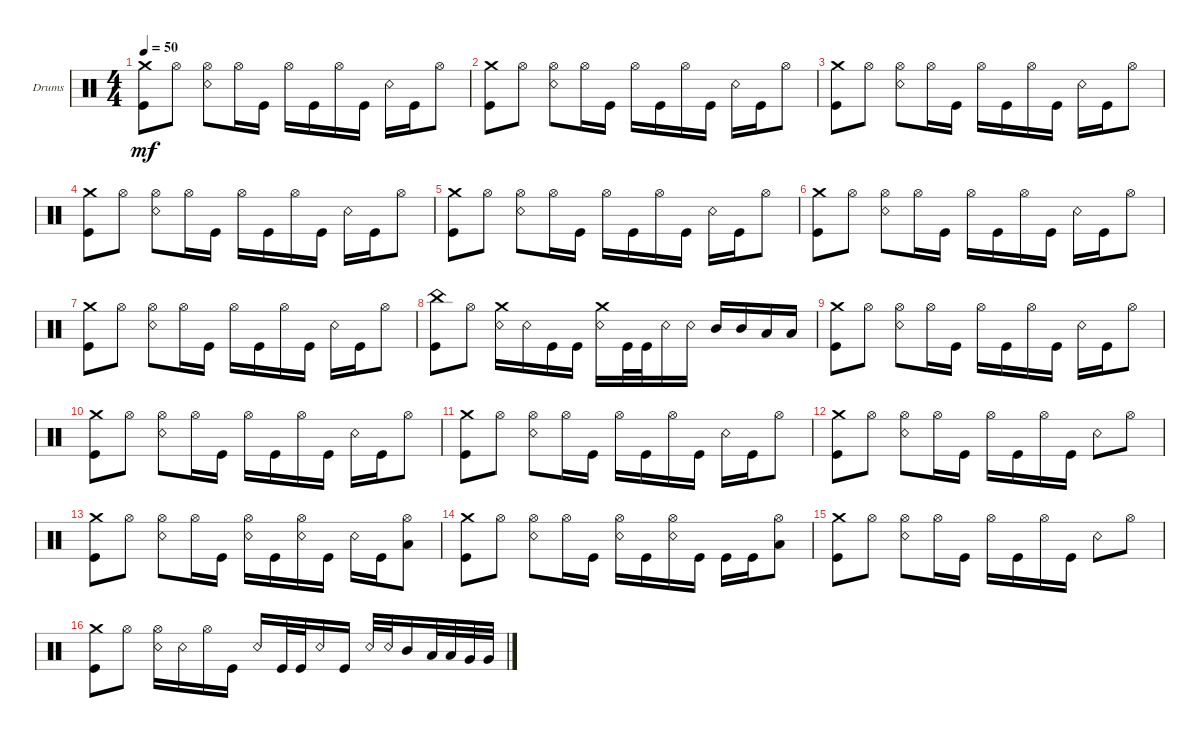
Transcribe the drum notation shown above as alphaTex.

\defaultSystemsLayout 4
\bracketExtendMode groupsimilarinstruments
\firstSystemTrackNameOrientation horizontal
\otherSystemsTrackNameOrientation horizontal
\track ("Илья" "Drums") {instrument percussion}
\staff {score}
\articulation defaults
\ts (4 4)
\tempo 50
\clef neutral
\ks c
("Crash medium (hit)" "Kick (hit)").8{dy mf} "Hi-Hat (open)".8 ("Snare (rim shot)" "Hi-Hat (open)").8 "Hi-Hat (open)".16 "Kick (hit)".16 "Hi-Hat (open)".16 "Kick (hit)".16 "Hi-Hat (open)".16 "Kick (hit)".16 "Snare (rim shot)".16 "Kick (hit)".16 "Hi-Hat (open)".8 |
("Crash medium (hit)" "Kick (hit)").8 "Hi-Hat (open)".8 ("Snare (rim shot)" "Hi-Hat (open)").8 "Hi-Hat (open)".16 "Kick (hit)".16 "Hi-Hat (open)".16 "Kick (hit)".16 "Hi-Hat (open)".16 "Kick (hit)".16 "Snare (rim shot)".16 "Kick (hit)".16 "Hi-Hat (open)".8 |
("Crash medium (hit)" "Kick (hit)").8 "Hi-Hat (open)".8 ("Snare (rim shot)" "Hi-Hat (open)").8 "Hi-Hat (open)".16 "Kick (hit)".16 "Hi-Hat (open)".16 "Kick (hit)".16 "Hi-Hat (open)".16 "Kick (hit)".16 "Snare (rim shot)".16 "Kick (hit)".16 "Hi-Hat (open)".8 |
("Crash medium (hit)" "Kick (hit)").8 "Hi-Hat (open)".8 ("Snare (rim shot)" "Hi-Hat (open)").8 "Hi-Hat (open)".16 "Kick (hit)".16 "Hi-Hat (open)".16 "Kick (hit)".16 "Hi-Hat (open)".16 "Kick (hit)".16 "Snare (rim shot)".16 "Kick (hit)".16 "Hi-Hat (open)".8 |
("Crash medium (hit)" "Kick (hit)").8 "Hi-Hat (open)".8 ("Snare (rim shot)" "Hi-Hat (open)").8 "Hi-Hat (open)".16 "Kick (hit)".16 "Hi-Hat (open)".16 "Kick (hit)".16 "Hi-Hat (open)".16 "Kick (hit)".16 "Snare (rim shot)".16 "Kick (hit)".16 "Hi-Hat (open)".8 |
("Crash medium (hit)" "Kick (hit)").8 "Hi-Hat (open)".8 ("Snare (rim shot)" "Hi-Hat (open)").8 "Hi-Hat (open)".16 "Kick (hit)".16 "Hi-Hat (open)".16 "Kick (hit)".16 "Hi-Hat (open)".16 "Kick (hit)".16 "Snare (rim shot)".16 "Kick (hit)".16 "Hi-Hat (open)".8 |
("Crash medium (hit)" "Kick (hit)").8 "Hi-Hat (open)".8 ("Snare (rim shot)" "Hi-Hat (open)").8 "Hi-Hat (open)".16 "Kick (hit)".16 "Hi-Hat (open)".16 "Kick (hit)".16 "Hi-Hat (open)".16 "Kick (hit)".16 "Snare (rim shot)".16 "Kick (hit)".16 "Hi-Hat (open)".8 |
("Kick (hit)" "China (hit)").8 "Hi-Hat (open)".8 ("Snare (rim shot)" "Crash medium (hit)").16 "Snare (rim shot)".16 "Kick (hit)".16 "Kick (hit)".16 ("Snare (rim shot)" "Crash medium (hit)").16 "Kick (hit)".32 "Kick (hit)".32 "Snare (rim shot)".16 "Snare (rim shot)".16 "Mid Tom (hit)".16 "Mid Tom (hit)".16 "Low Tom (hit)".16 "Low Tom (hit)".16 |
("Crash medium (hit)" "Kick (hit)").8 "Hi-Hat (open)".8 ("Snare (rim shot)" "Hi-Hat (open)").8 "Hi-Hat (open)".16 "Kick (hit)".16 "Hi-Hat (open)".16 "Kick (hit)".16 "Hi-Hat (open)".16 "Kick (hit)".16 "Snare (rim shot)".16 "Kick (hit)".16 "Hi-Hat (open)".8 |
("Crash medium (hit)" "Kick (hit)").8 "Hi-Hat (open)".8 ("Snare (rim shot)" "Hi-Hat (open)").8 "Hi-Hat (open)".16 "Kick (hit)".16 "Hi-Hat (open)".16 "Kick (hit)".16 "Hi-Hat (open)".16 "Kick (hit)".16 "Snare (rim shot)".16 "Kick (hit)".16 "Hi-Hat (open)".8 |
("Crash medium (hit)" "Kick (hit)").8 "Hi-Hat (open)".8 ("Snare (rim shot)" "Hi-Hat (open)").8 "Hi-Hat (open)".16 "Kick (hit)".16 "Hi-Hat (open)".16 "Kick (hit)".16 "Hi-Hat (open)".16 "Kick (hit)".16 "Snare (rim shot)".16 "Kick (hit)".16 "Hi-Hat (open)".8 |
("Crash medium (hit)" "Kick (hit)").8 "Hi-Hat (open)".8 ("Snare (rim shot)" "Hi-Hat (open)").8 "Hi-Hat (open)".16 "Kick (hit)".16 "Hi-Hat (open)".16 "Kick (hit)".16 "Hi-Hat (open)".16 "Kick (hit)".16 "Snare (rim shot)".8 "Hi-Hat (open)".8 |
("Crash medium (hit)" "Kick (hit)").8 "Hi-Hat (open)".8 ("Hi-Hat (open)" "Snare (rim shot)").8 "Hi-Hat (open)".16 "Kick (hit)".16 ("Hi-Hat (open)" "Snare (rim shot)").16 "Kick (hit)".16 ("Hi-Hat (open)" "Snare (rim shot)").16 "Kick (hit)".16 "Snare (rim shot)".16 "Kick (hit)".16 ("Low Tom (hit)" "Hi-Hat (open)").8 |
("Crash medium (hit)" "Kick (hit)").8 "Hi-Hat (open)".8 ("Hi-Hat (open)" "Snare (rim shot)").8 "Hi-Hat (open)".16 "Kick (hit)".16 ("Hi-Hat (open)" "Snare (rim shot)").16 "Kick (hit)".16 ("Hi-Hat (open)" "Snare (rim shot)").16 "Kick (hit)".16 "Kick (hit)".16 "Kick (hit)".16 ("Low Tom (hit)" "Hi-Hat (open)").8 |
("Crash medium (hit)" "Kick (hit)").8 "Hi-Hat (open)".8 ("Snare (rim shot)" "Hi-Hat (open)").8 "Hi-Hat (open)".16 "Kick (hit)".16 "Hi-Hat (open)".16 "Kick (hit)".16 "Hi-Hat (open)".16 "Kick (hit)".16 "Snare (rim shot)".8 "Hi-Hat (open)".8 |
("Crash medium (hit)" "Kick (hit)").8 "Hi-Hat (open)".8 ("Snare (rim shot)" "Hi-Hat (open)").16 "Snare (rim shot)".16 "Hi-Hat (open)".16 "Kick (hit)".16 "Snare (rim shot)".16 "Kick (hit)".32 "Kick (hit)".32 "Snare (rim shot)".16 "Kick (hit)".16 "Snare (rim shot)".32 "Snare (rim shot)".32 "Mid Tom (hit)".16 "Low Tom (hit)".32 "Low Tom (hit)".32 "Very Low Tom (hit)".32 "Very Low Tom (hit)".32
